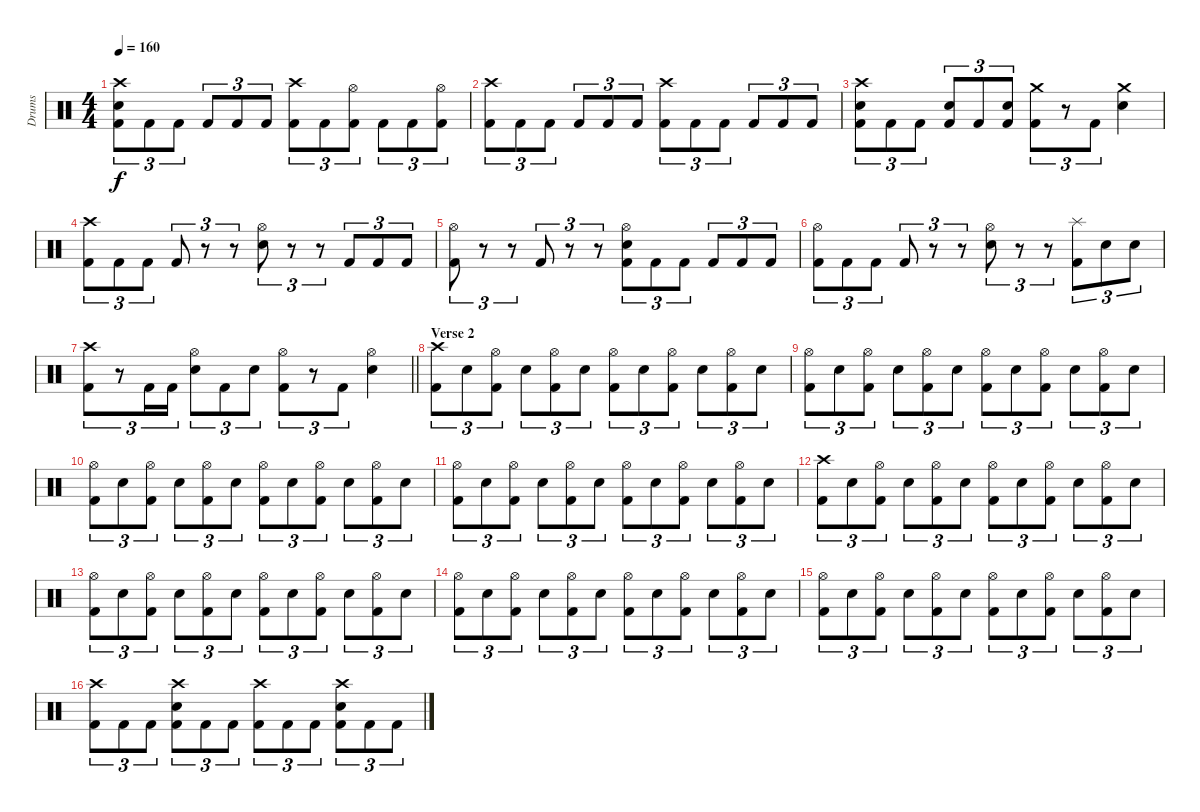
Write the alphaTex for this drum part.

\track ("Drums" "Drums") {instrument percussion}
\staff {score}
\articulation defaults
\ts (4 4)
\tempo 160
\clef neutral
\ks c
("Crash high (hit)" "Electric Snare (hit)" "Kick (hit) 2").8{tu (3 2) dy f} "Kick (hit) 2".8{tu (3 2)} "Kick (hit) 2".8{tu (3 2)} "Kick (hit) 2".8{tu (3 2)} "Kick (hit) 2".8{tu (3 2)} "Kick (hit) 2".8{tu (3 2)} ("Crash high (hit)" "Kick (hit) 2").8{tu (3 2)} "Kick (hit) 2".8{tu (3 2)} ("Hi-Hat (open)" "Kick (hit) 2").8{tu (3 2)} "Kick (hit) 2".8{tu (3 2)} "Kick (hit) 2".8{tu (3 2)} ("Hi-Hat (open)" "Kick (hit) 2").8{tu (3 2)} |
("Crash high (hit)" "Kick (hit) 2").8{tu (3 2)} "Kick (hit) 2".8{tu (3 2)} "Kick (hit) 2".8{tu (3 2)} "Kick (hit) 2".8{tu (3 2)} "Kick (hit) 2".8{tu (3 2)} "Kick (hit) 2".8{tu (3 2)} ("Crash high (hit)" "Kick (hit) 2").8{tu (3 2)} "Kick (hit) 2".8{tu (3 2)} "Kick (hit) 2".8{tu (3 2)} "Kick (hit) 2".8{tu (3 2)} "Kick (hit) 2".8{tu (3 2)} "Kick (hit) 2".8{tu (3 2)} |
("Crash high (hit)" "Electric Snare (hit)" "Kick (hit) 2").8{tu (3 2)} "Kick (hit) 2".8{tu (3 2)} "Kick (hit) 2".8{tu (3 2)} ("Electric Snare (hit)" "Kick (hit) 2").8{tu (3 2)} "Kick (hit) 2".8{tu (3 2)} ("Electric Snare (hit)" "Kick (hit) 2").8{tu (3 2)} ("Crash medium (hit)" "Kick (hit) 2").8{tu (3 2)} r.8{tu (3 2)} "Kick (hit) 2".8{tu (3 2)} ("Crash medium (hit)" "Electric Snare (hit)").4 |
("Crash high (hit)" "Kick (hit) 2").8{tu (3 2)} "Kick (hit) 2".8{tu (3 2)} "Kick (hit) 2".8{tu (3 2)} "Kick (hit) 2".8{tu (3 2)} r.8{tu (3 2)} r.8{tu (3 2)} ("Hi-Hat (open)" "Electric Snare (hit)").8{tu (3 2)} r.8{tu (3 2)} r.8{tu (3 2)} "Kick (hit) 2".8{tu (3 2)} "Kick (hit) 2".8{tu (3 2)} "Kick (hit) 2".8{tu (3 2)} |
("Hi-Hat (open)" "Kick (hit) 2").8{tu (3 2)} r.8{tu (3 2)} r.8{tu (3 2)} "Kick (hit) 2".8{tu (3 2)} r.8{tu (3 2)} r.8{tu (3 2)} ("Hi-Hat (open)" "Electric Snare (hit)" "Kick (hit) 2").8{tu (3 2)} "Kick (hit) 2".8{tu (3 2)} "Kick (hit) 2".8{tu (3 2)} "Kick (hit) 2".8{tu (3 2)} "Kick (hit) 2".8{tu (3 2)} "Kick (hit) 2".8{tu (3 2)} |
("Hi-Hat (open)" "Kick (hit) 2").8{tu (3 2)} "Kick (hit) 2".8{tu (3 2)} "Kick (hit) 2".8{tu (3 2)} "Kick (hit) 2".8{tu (3 2)} r.8{tu (3 2)} r.8{tu (3 2)} ("Hi-Hat (open)" "Electric Snare (hit)").8{tu (3 2)} r.8{tu (3 2)} r.8{tu (3 2)} ("Splash (hit)" "Kick (hit) 2").8{tu (3 2)} "Electric Snare (hit)".8{tu (3 2)} "Electric Snare (hit)".8{tu (3 2)} |
\barLineRight lightlight
("Crash high (hit)" "Kick (hit) 2").8{tu (3 2)} r.8{tu (3 2)} "Kick (hit) 2".16{tu (3 2)} "Kick (hit) 2".16{tu (3 2)} ("Hi-Hat (open)" "Electric Snare (hit)").8{tu (3 2)} "Kick (hit) 2".8{tu (3 2)} "Electric Snare (hit)".8{tu (3 2)} ("Hi-Hat (open)" "Kick (hit) 2").8{tu (3 2)} r.8{tu (3 2)} "Kick (hit) 2".8{tu (3 2)} ("Hi-Hat (open)" "Electric Snare (hit)").4 |
\section ("" "Verse 2")
("Crash high (hit)" "Kick (hit) 2").8{tu (3 2)} "Electric Snare (hit)".8{tu (3 2)} ("Hi-Hat (open)" "Kick (hit) 2").8{tu (3 2)} "Electric Snare (hit)".8{tu (3 2)} ("Hi-Hat (open)" "Kick (hit) 2").8{tu (3 2)} "Electric Snare (hit)".8{tu (3 2)} ("Hi-Hat (open)" "Kick (hit) 2").8{tu (3 2)} "Electric Snare (hit)".8{tu (3 2)} ("Hi-Hat (open)" "Kick (hit) 2").8{tu (3 2)} "Electric Snare (hit)".8{tu (3 2)} ("Hi-Hat (open)" "Kick (hit) 2").8{tu (3 2)} "Electric Snare (hit)".8{tu (3 2)} |
("Hi-Hat (open)" "Kick (hit) 2").8{tu (3 2)} "Electric Snare (hit)".8{tu (3 2)} ("Hi-Hat (open)" "Kick (hit) 2").8{tu (3 2)} "Electric Snare (hit)".8{tu (3 2)} ("Hi-Hat (open)" "Kick (hit) 2").8{tu (3 2)} "Electric Snare (hit)".8{tu (3 2)} ("Hi-Hat (open)" "Kick (hit) 2").8{tu (3 2)} "Electric Snare (hit)".8{tu (3 2)} ("Hi-Hat (open)" "Kick (hit) 2").8{tu (3 2)} "Electric Snare (hit)".8{tu (3 2)} ("Hi-Hat (open)" "Kick (hit) 2").8{tu (3 2)} "Electric Snare (hit)".8{tu (3 2)} |
("Hi-Hat (open)" "Kick (hit) 2").8{tu (3 2)} "Electric Snare (hit)".8{tu (3 2)} ("Hi-Hat (open)" "Kick (hit) 2").8{tu (3 2)} "Electric Snare (hit)".8{tu (3 2)} ("Hi-Hat (open)" "Kick (hit) 2").8{tu (3 2)} "Electric Snare (hit)".8{tu (3 2)} ("Hi-Hat (open)" "Kick (hit) 2").8{tu (3 2)} "Electric Snare (hit)".8{tu (3 2)} ("Hi-Hat (open)" "Kick (hit) 2").8{tu (3 2)} "Electric Snare (hit)".8{tu (3 2)} ("Hi-Hat (open)" "Kick (hit) 2").8{tu (3 2)} "Electric Snare (hit)".8{tu (3 2)} |
("Hi-Hat (open)" "Kick (hit) 2").8{tu (3 2)} "Electric Snare (hit)".8{tu (3 2)} ("Hi-Hat (open)" "Kick (hit) 2").8{tu (3 2)} "Electric Snare (hit)".8{tu (3 2)} ("Hi-Hat (open)" "Kick (hit) 2").8{tu (3 2)} "Electric Snare (hit)".8{tu (3 2)} ("Hi-Hat (open)" "Kick (hit) 2").8{tu (3 2)} "Electric Snare (hit)".8{tu (3 2)} ("Hi-Hat (open)" "Kick (hit) 2").8{tu (3 2)} "Electric Snare (hit)".8{tu (3 2)} ("Hi-Hat (open)" "Kick (hit) 2").8{tu (3 2)} "Electric Snare (hit)".8{tu (3 2)} |
("Crash high (hit)" "Kick (hit) 2").8{tu (3 2)} "Electric Snare (hit)".8{tu (3 2)} ("Hi-Hat (open)" "Kick (hit) 2").8{tu (3 2)} "Electric Snare (hit)".8{tu (3 2)} ("Hi-Hat (open)" "Kick (hit) 2").8{tu (3 2)} "Electric Snare (hit)".8{tu (3 2)} ("Hi-Hat (open)" "Kick (hit) 2").8{tu (3 2)} "Electric Snare (hit)".8{tu (3 2)} ("Hi-Hat (open)" "Kick (hit) 2").8{tu (3 2)} "Electric Snare (hit)".8{tu (3 2)} ("Hi-Hat (open)" "Kick (hit) 2").8{tu (3 2)} "Electric Snare (hit)".8{tu (3 2)} |
("Hi-Hat (open)" "Kick (hit) 2").8{tu (3 2)} "Electric Snare (hit)".8{tu (3 2)} ("Hi-Hat (open)" "Kick (hit) 2").8{tu (3 2)} "Electric Snare (hit)".8{tu (3 2)} ("Hi-Hat (open)" "Kick (hit) 2").8{tu (3 2)} "Electric Snare (hit)".8{tu (3 2)} ("Hi-Hat (open)" "Kick (hit) 2").8{tu (3 2)} "Electric Snare (hit)".8{tu (3 2)} ("Hi-Hat (open)" "Kick (hit) 2").8{tu (3 2)} "Electric Snare (hit)".8{tu (3 2)} ("Hi-Hat (open)" "Kick (hit) 2").8{tu (3 2)} "Electric Snare (hit)".8{tu (3 2)} |
("Hi-Hat (open)" "Kick (hit) 2").8{tu (3 2)} "Electric Snare (hit)".8{tu (3 2)} ("Hi-Hat (open)" "Kick (hit) 2").8{tu (3 2)} "Electric Snare (hit)".8{tu (3 2)} ("Hi-Hat (open)" "Kick (hit) 2").8{tu (3 2)} "Electric Snare (hit)".8{tu (3 2)} ("Hi-Hat (open)" "Kick (hit) 2").8{tu (3 2)} "Electric Snare (hit)".8{tu (3 2)} ("Hi-Hat (open)" "Kick (hit) 2").8{tu (3 2)} "Electric Snare (hit)".8{tu (3 2)} ("Hi-Hat (open)" "Kick (hit) 2").8{tu (3 2)} "Electric Snare (hit)".8{tu (3 2)} |
("Hi-Hat (open)" "Kick (hit) 2").8{tu (3 2)} "Electric Snare (hit)".8{tu (3 2)} ("Hi-Hat (open)" "Kick (hit) 2").8{tu (3 2)} "Electric Snare (hit)".8{tu (3 2)} ("Hi-Hat (open)" "Kick (hit) 2").8{tu (3 2)} "Electric Snare (hit)".8{tu (3 2)} ("Hi-Hat (open)" "Kick (hit) 2").8{tu (3 2)} "Electric Snare (hit)".8{tu (3 2)} ("Hi-Hat (open)" "Kick (hit) 2").8{tu (3 2)} "Electric Snare (hit)".8{tu (3 2)} ("Hi-Hat (open)" "Kick (hit) 2").8{tu (3 2)} "Electric Snare (hit)".8{tu (3 2)} |
("Crash high (hit)" "Kick (hit) 2").8{tu (3 2)} "Kick (hit) 2".8{tu (3 2)} "Kick (hit) 2".8{tu (3 2)} ("Crash high (hit)" "Electric Snare (hit)" "Kick (hit) 2").8{tu (3 2)} "Kick (hit) 2".8{tu (3 2)} "Kick (hit) 2".8{tu (3 2)} ("Crash high (hit)" "Kick (hit) 2").8{tu (3 2)} "Kick (hit) 2".8{tu (3 2)} "Kick (hit) 2".8{tu (3 2)} ("Crash high (hit)" "Electric Snare (hit)" "Kick (hit) 2").8{tu (3 2)} "Kick (hit) 2".8{tu (3 2)} "Kick (hit) 2".8{tu (3 2)}
